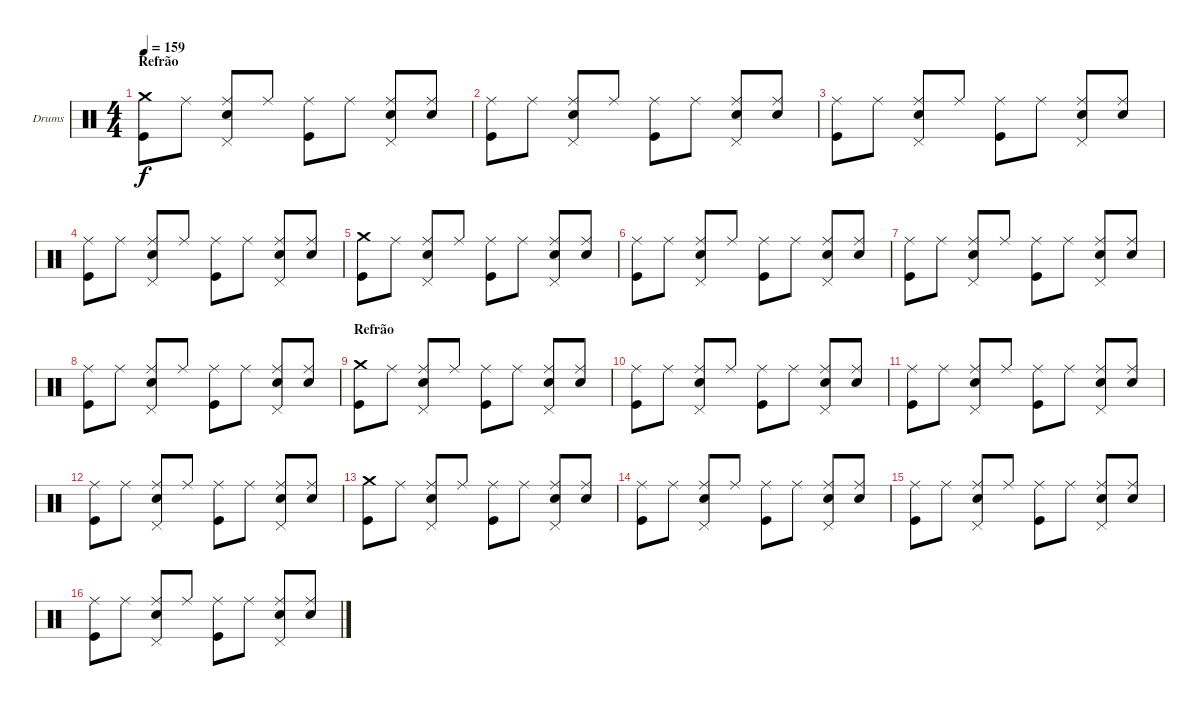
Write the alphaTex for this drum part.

\bracketExtendMode groupsimilarinstruments
\firstSystemTrackNameOrientation horizontal
\otherSystemsTrackNameOrientation horizontal
\track ("Drumkit" "Drums") {instrument percussion}
\staff {score}
\articulation defaults
\ts (4 4)
\section ("" "Refrão")
\tempo 159
\clef neutral
\scale
0.333333
\ks c
("Kick (hit)" "Crash medium (hit)").8{dy f} "Ride (middle)".8 ("Ride (middle)" "Snare (hit) 2" "Pedal Hi-Hat (hit)").8 "Ride (middle)".8 ("Ride (middle)" "Kick (hit)").8 "Ride (middle)".8 ("Ride (middle)" "Snare (hit) 2" "Pedal Hi-Hat (hit)").8 ("Ride (middle)" "Snare (hit) 2").8 |
\scale
0.333333 ("Ride (middle)" "Kick (hit)").8 "Ride (middle)".8 ("Ride (middle)" "Snare (hit) 2" "Pedal Hi-Hat (hit)").8 "Ride (middle)".8 ("Ride (middle)" "Kick (hit)").8 "Ride (middle)".8 ("Ride (middle)" "Snare (hit) 2" "Pedal Hi-Hat (hit)").8 ("Ride (middle)" "Snare (hit) 2").8 |
\scale
0.333333 ("Ride (middle)" "Kick (hit)").8 "Ride (middle)".8 ("Ride (middle)" "Snare (hit) 2" "Pedal Hi-Hat (hit)").8 "Ride (middle)".8 ("Ride (middle)" "Kick (hit)").8 "Ride (middle)".8 ("Ride (middle)" "Snare (hit) 2" "Pedal Hi-Hat (hit)").8 ("Ride (middle)" "Snare (hit) 2").8 |
\scale
0.333333 ("Ride (middle)" "Kick (hit)").8 "Ride (middle)".8 ("Ride (middle)" "Snare (hit) 2" "Pedal Hi-Hat (hit)").8 "Ride (middle)".8 ("Ride (middle)" "Kick (hit)").8 "Ride (middle)".8 ("Ride (middle)" "Snare (hit) 2" "Pedal Hi-Hat (hit)").8 ("Ride (middle)" "Snare (hit) 2").8 |
\scale
0.333333 ("Kick (hit)" "Crash medium (hit)").8 "Ride (middle)".8 ("Ride (middle)" "Snare (hit) 2" "Pedal Hi-Hat (hit)").8 "Ride (middle)".8 ("Ride (middle)" "Kick (hit)").8 "Ride (middle)".8 ("Ride (middle)" "Snare (hit) 2" "Pedal Hi-Hat (hit)").8 ("Ride (middle)" "Snare (hit) 2").8 |
\scale
0.333333 ("Ride (middle)" "Kick (hit)").8 "Ride (middle)".8 ("Ride (middle)" "Snare (hit) 2" "Pedal Hi-Hat (hit)").8 "Ride (middle)".8 ("Ride (middle)" "Kick (hit)").8 "Ride (middle)".8 ("Ride (middle)" "Snare (hit) 2" "Pedal Hi-Hat (hit)").8 ("Ride (middle)" "Snare (hit) 2").8 |
\scale
0.333333 ("Ride (middle)" "Kick (hit)").8 "Ride (middle)".8 ("Ride (middle)" "Snare (hit) 2" "Pedal Hi-Hat (hit)").8 "Ride (middle)".8 ("Ride (middle)" "Kick (hit)").8 "Ride (middle)".8 ("Ride (middle)" "Snare (hit) 2" "Pedal Hi-Hat (hit)").8 ("Ride (middle)" "Snare (hit) 2").8 |
\scale
0.333333 ("Ride (middle)" "Kick (hit)").8 "Ride (middle)".8 ("Ride (middle)" "Snare (hit) 2" "Pedal Hi-Hat (hit)").8 "Ride (middle)".8 ("Ride (middle)" "Kick (hit)").8 "Ride (middle)".8 ("Ride (middle)" "Snare (hit) 2" "Pedal Hi-Hat (hit)").8 ("Ride (middle)" "Snare (hit) 2").8 |
\section ("" "Refrão")
\scale
0.333333 ("Kick (hit)" "Crash medium (hit)").8 "Ride (middle)".8 ("Ride (middle)" "Snare (hit) 2" "Pedal Hi-Hat (hit)").8 "Ride (middle)".8 ("Ride (middle)" "Kick (hit)").8 "Ride (middle)".8 ("Ride (middle)" "Snare (hit) 2" "Pedal Hi-Hat (hit)").8 ("Ride (middle)" "Snare (hit) 2").8 |
\scale
0.333333 ("Ride (middle)" "Kick (hit)").8 "Ride (middle)".8 ("Ride (middle)" "Snare (hit) 2" "Pedal Hi-Hat (hit)").8 "Ride (middle)".8 ("Ride (middle)" "Kick (hit)").8 "Ride (middle)".8 ("Ride (middle)" "Snare (hit) 2" "Pedal Hi-Hat (hit)").8 ("Ride (middle)" "Snare (hit) 2").8 |
\scale
0.333333 ("Ride (middle)" "Kick (hit)").8 "Ride (middle)".8 ("Ride (middle)" "Snare (hit) 2" "Pedal Hi-Hat (hit)").8 "Ride (middle)".8 ("Ride (middle)" "Kick (hit)").8 "Ride (middle)".8 ("Ride (middle)" "Snare (hit) 2" "Pedal Hi-Hat (hit)").8 ("Ride (middle)" "Snare (hit) 2").8 |
\scale
0.333333 ("Ride (middle)" "Kick (hit)").8 "Ride (middle)".8 ("Ride (middle)" "Snare (hit) 2" "Pedal Hi-Hat (hit)").8 "Ride (middle)".8 ("Ride (middle)" "Kick (hit)").8 "Ride (middle)".8 ("Ride (middle)" "Snare (hit) 2" "Pedal Hi-Hat (hit)").8 ("Ride (middle)" "Snare (hit) 2").8 |
\scale
0.333333 ("Kick (hit)" "Crash medium (hit)").8 "Ride (middle)".8 ("Ride (middle)" "Snare (hit) 2" "Pedal Hi-Hat (hit)").8 "Ride (middle)".8 ("Ride (middle)" "Kick (hit)").8 "Ride (middle)".8 ("Ride (middle)" "Snare (hit) 2" "Pedal Hi-Hat (hit)").8 ("Ride (middle)" "Snare (hit) 2").8 |
\scale
0.333333 ("Ride (middle)" "Kick (hit)").8 "Ride (middle)".8 ("Ride (middle)" "Snare (hit) 2" "Pedal Hi-Hat (hit)").8 "Ride (middle)".8 ("Ride (middle)" "Kick (hit)").8 "Ride (middle)".8 ("Ride (middle)" "Snare (hit) 2" "Pedal Hi-Hat (hit)").8 ("Ride (middle)" "Snare (hit) 2").8 |
\scale
0.333333 ("Ride (middle)" "Kick (hit)").8 "Ride (middle)".8 ("Ride (middle)" "Snare (hit) 2" "Pedal Hi-Hat (hit)").8 "Ride (middle)".8 ("Ride (middle)" "Kick (hit)").8 "Ride (middle)".8 ("Ride (middle)" "Snare (hit) 2" "Pedal Hi-Hat (hit)").8 ("Ride (middle)" "Snare (hit) 2").8 |
\scale
0.333333 ("Ride (middle)" "Kick (hit)").8 "Ride (middle)".8 ("Ride (middle)" "Snare (hit) 2" "Pedal Hi-Hat (hit)").8 "Ride (middle)".8 ("Ride (middle)" "Kick (hit)").8 "Ride (middle)".8 ("Ride (middle)" "Snare (hit) 2" "Pedal Hi-Hat (hit)").8 ("Ride (middle)" "Snare (hit) 2").8
